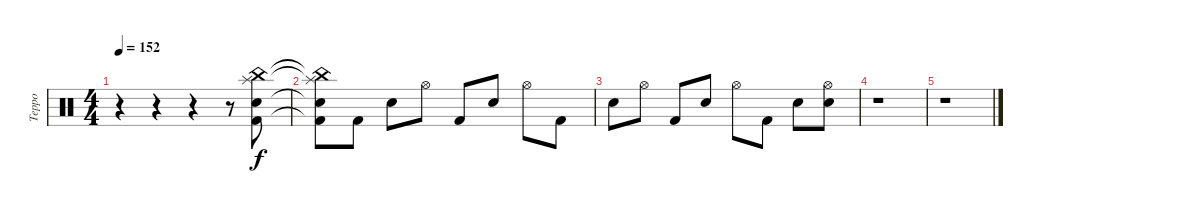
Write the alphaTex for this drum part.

\track ("Teppo" "Teppo") {instrument percussion}
\staff {score}
\articulation defaults
\ts (4 4)
\tempo 152
\clef neutral
\ks c
r.4{dy f} r.4 r.4 r.8 ("China (hit)" "Splash (hit)" "Electric Snare (hit)" "Kick (hit) 2").8 |
("China (hit)"{t} "Splash (hit)"{t} "Electric Snare (hit)"{t} "Kick (hit) 2"{t}).8 "Kick (hit) 2".8 "Electric Snare (hit)".8 "Hi-Hat (open)".8 "Kick (hit) 2".8 "Electric Snare (hit)".8 "Hi-Hat (open)".8 "Kick (hit) 2".8 |
"Electric Snare (hit)".8 "Hi-Hat (open)".8 "Kick (hit) 2".8 "Electric Snare (hit)".8 "Hi-Hat (open)".8 "Kick (hit) 2".8 "Electric Snare (hit)".8 ("Hi-Hat (open)" "Electric Snare (hit)").8 |
r.1 |
r.1
